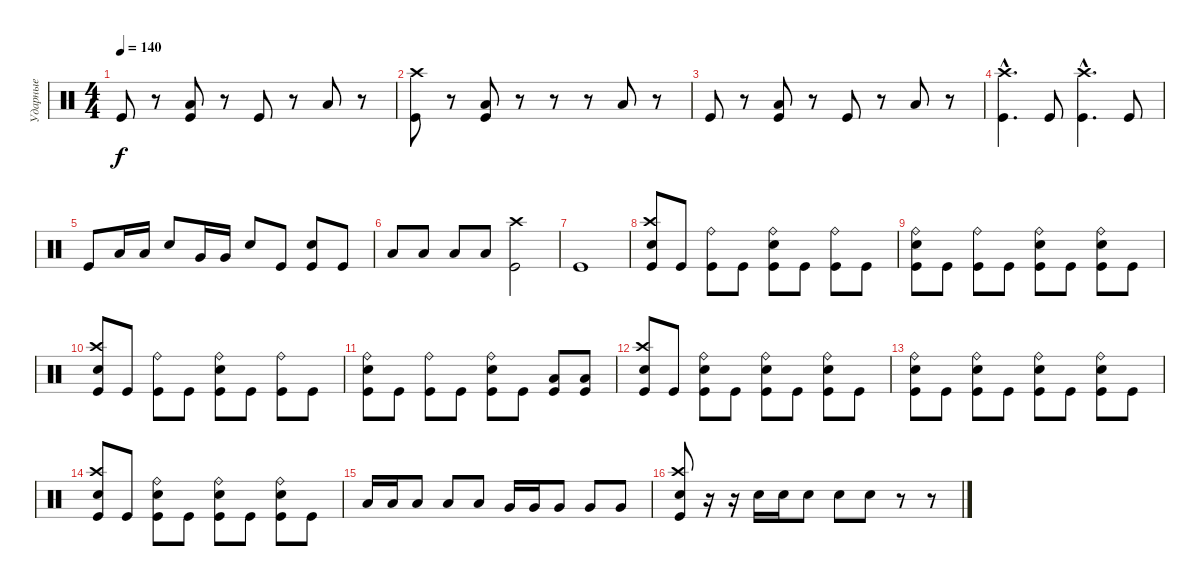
\track ("Ударные" "Ударные") {instrument percussion}
\staff {score}
\articulation defaults
\ts (4 4)
\tempo 140
\clef neutral
\ks c "Kick (hit)".8{dy f}
r.8 ("Low Tom (hit)" "Kick (hit)").8 r.8 "Kick (hit)".8 r.8 "Low Tom (hit)".8 r.8 |
("Crash high (hit)" "Kick (hit)").8 r.8 ("Low Tom (hit)" "Kick (hit)").8 r.8 r.8 r.8 "Low Tom (hit)".8 r.8 |
"Kick (hit)".8 r.8 ("Low Tom (hit)" "Kick (hit)").8 r.8 "Kick (hit)".8 r.8 "Low Tom (hit)".8 r.8 |
("Crash high (hit)"{hac} "Kick (hit)"{hac}).4{d} "Kick (hit)".8 ("Crash high (hit)"{hac} "Kick (hit)"{hac}).4{d} "Kick (hit)".8 |
"Kick (hit)".8 "Low Tom (hit)".16 "Low Tom (hit)".16 "Electric Snare (hit)".8 "Very Low Tom (hit)".16 "Very Low Tom (hit)".16 "Electric Snare (hit)".8 "Kick (hit)".8 ("Electric Snare (hit)" "Kick (hit)").8 "Kick (hit)".8 |
"Low Tom (hit)".8 "Low Tom (hit)".8 "Low Tom (hit)".8 "Low Tom (hit)".8 ("Crash high (hit)" "Kick (hit)").2 |
"Kick (hit)".1 |
("Crash high (hit)" "Electric Snare (hit)" "Kick (hit)").8 "Kick (hit)".8 ("Ride (bell)" "Kick (hit)").8 "Kick (hit)".8 ("Ride (bell)" "Electric Snare (hit)" "Kick (hit)").8 "Kick (hit)".8 ("Ride (bell)" "Kick (hit)").8 "Kick (hit)".8 |
("Ride (bell)" "Electric Snare (hit)" "Kick (hit)").8 "Kick (hit)".8 ("Ride (bell)" "Kick (hit)").8 "Kick (hit)".8 ("Ride (bell)" "Electric Snare (hit)" "Kick (hit)").8 "Kick (hit)".8 ("Ride (bell)" "Electric Snare (hit)" "Kick (hit)").8 "Kick (hit)".8 |
("Crash high (hit)" "Electric Snare (hit)" "Kick (hit)").8 "Kick (hit)".8 ("Ride (bell)" "Kick (hit)").8 "Kick (hit)".8 ("Ride (bell)" "Electric Snare (hit)" "Kick (hit)").8 "Kick (hit)".8 ("Ride (bell)" "Kick (hit)").8 "Kick (hit)".8 |
("Ride (bell)" "Electric Snare (hit)" "Kick (hit)").8 "Kick (hit)".8 ("Ride (bell)" "Kick (hit)").8 "Kick (hit)".8 ("Ride (bell)" "Electric Snare (hit)" "Kick (hit)").8 "Kick (hit)".8 ("Low Tom (hit)" "Kick (hit)").8 ("Low Tom (hit)" "Kick (hit)").8 |
("Crash high (hit)" "Electric Snare (hit)" "Kick (hit)").8 "Kick (hit)".8 ("Ride (bell)" "Electric Snare (hit)" "Kick (hit)").8 "Kick (hit)".8 ("Ride (bell)" "Electric Snare (hit)" "Kick (hit)").8 "Kick (hit)".8 ("Ride (bell)" "Electric Snare (hit)" "Kick (hit)").8 "Kick (hit)".8 |
("Ride (bell)" "Electric Snare (hit)" "Kick (hit)").8 "Kick (hit)".8 ("Ride (bell)" "Electric Snare (hit)" "Kick (hit)").8 "Kick (hit)".8 ("Ride (bell)" "Electric Snare (hit)" "Kick (hit)").8 "Kick (hit)".8 ("Ride (bell)" "Electric Snare (hit)" "Kick (hit)").8 "Kick (hit)".8 |
("Crash high (hit)" "Electric Snare (hit)" "Kick (hit)").8 "Kick (hit)".8 ("Ride (bell)" "Electric Snare (hit)" "Kick (hit)").8 "Kick (hit)".8 ("Ride (bell)" "Electric Snare (hit)" "Kick (hit)").8 "Kick (hit)".8 ("Ride (bell)" "Electric Snare (hit)" "Kick (hit)").8 "Kick (hit)".8 |
"Low Tom (hit)".16 "Low Tom (hit)".16 "Low Tom (hit)".8 "Low Tom (hit)".8 "Low Tom (hit)".8 "Very Low Tom (hit)".16 "Very Low Tom (hit)".16 "Very Low Tom (hit)".8 "Very Low Tom (hit)".8 "Very Low Tom (hit)".8 |
("Crash high (hit)" "Electric Snare (hit)" "Kick (hit)").8 r.16 r.16 "Electric Snare (hit)".16 "Electric Snare (hit)".16 "Electric Snare (hit)".8 "Electric Snare (hit)".8 "Electric Snare (hit)".8 r.8 r.8
